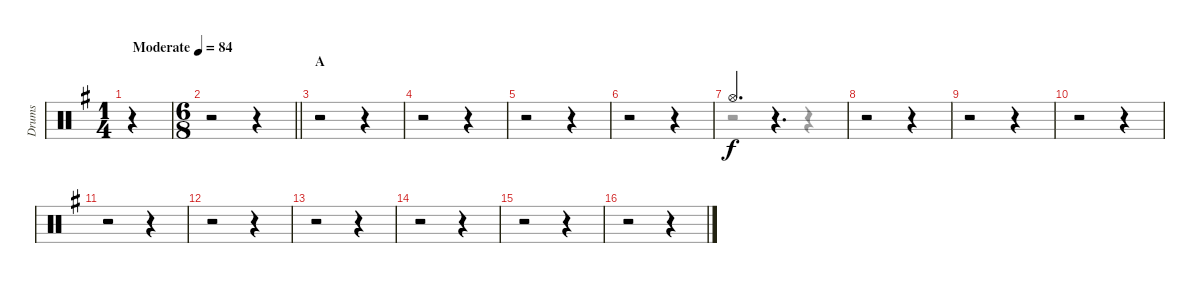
\track ("Drums" "Drums") {instrument percussion}
\staff {score}
\articulation defaults
\voice
\ts (1 4)
\tempo (84 "Moderate")
\clef neutral
\ks g
r.4{dy f} |
\ts (6 8)
\barLineRight lightlight
r.2 r.4 |
\section ("" "A")
r.2 r.4 |
r.2 r.4 |
r.2 r.4 |
r.2 r.4 |
"Hi-Hat (open)".4{d} r.4{d} |
r.2 r.4 |
r.2 r.4 |
r.2 r.4 |
r.2 r.4 |
r.2 r.4 |
r.2 r.4 |
r.2 r.4 |
r.2 r.4 |
r.2 r.4
\voice
\clef neutral
\ottava regular
\simile none
\ks g
r.4{dy fff} |
\barLineRight lightlight
r.2 r.4 |
r.2 r.4 |
r.2 r.4 |
r.2 r.4 |
r.2 r.4 |
r.2 r.4 |
r.2 r.4 |
r.2 r.4 |
r.2 r.4 |
r.2 r.4 |
r.2 r.4 |
r.2 r.4 |
r.2 r.4 |
r.2 r.4 |
r.2 r.4
